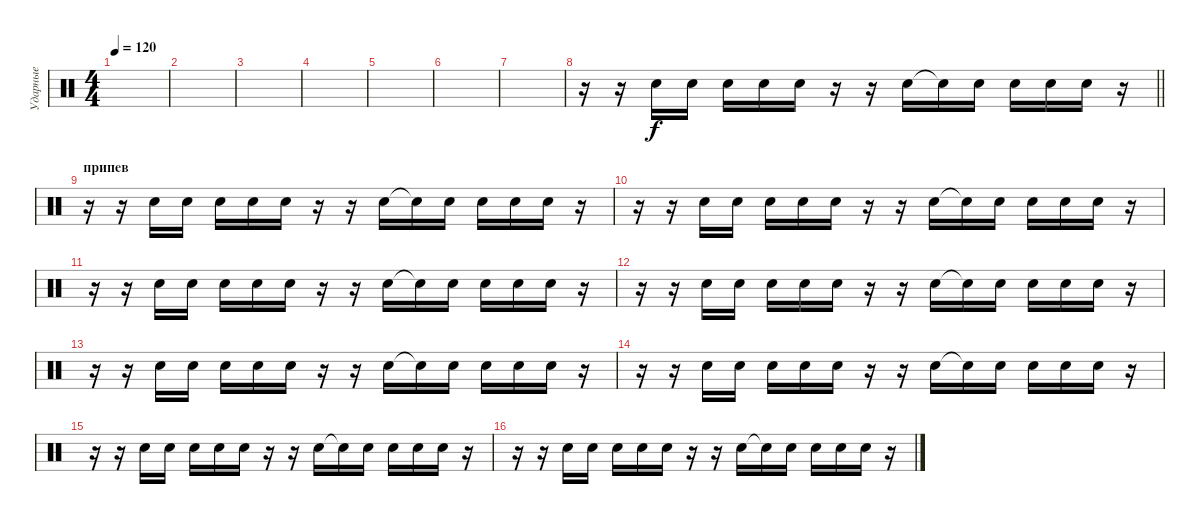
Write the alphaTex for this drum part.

\track ("Ударные" "Ударные") {instrument percussion}
\staff {score}
\articulation defaults
\ts (4 4)
\tempo 120
\clef neutral
\ks c
|
|
|
|
|
|
|
\barLineRight lightlight
r.16 r.16 "Hand Clap (hit)".16 "Hand Clap (hit)".16 "Hand Clap (hit)".16 "Hand Clap (hit)".16 "Hand Clap (hit)".16 r.16 r.16 "Hand Clap (hit)".16 "Hand Clap (hit)"{t}.16 "Hand Clap (hit)".16 "Hand Clap (hit)".16 "Hand Clap (hit)".16 "Hand Clap (hit)".16 r.16 |
\section ("" "припев")
r.16 r.16 "Hand Clap (hit)".16 "Hand Clap (hit)".16 "Hand Clap (hit)".16 "Hand Clap (hit)".16 "Hand Clap (hit)".16 r.16 r.16 "Hand Clap (hit)".16 "Hand Clap (hit)"{t}.16 "Hand Clap (hit)".16 "Hand Clap (hit)".16 "Hand Clap (hit)".16 "Hand Clap (hit)".16 r.16 |
r.16 r.16 "Hand Clap (hit)".16 "Hand Clap (hit)".16 "Hand Clap (hit)".16 "Hand Clap (hit)".16 "Hand Clap (hit)".16 r.16 r.16 "Hand Clap (hit)".16 "Hand Clap (hit)"{t}.16 "Hand Clap (hit)".16 "Hand Clap (hit)".16 "Hand Clap (hit)".16 "Hand Clap (hit)".16 r.16 |
r.16 r.16 "Hand Clap (hit)".16 "Hand Clap (hit)".16 "Hand Clap (hit)".16 "Hand Clap (hit)".16 "Hand Clap (hit)".16 r.16 r.16 "Hand Clap (hit)".16 "Hand Clap (hit)"{t}.16 "Hand Clap (hit)".16 "Hand Clap (hit)".16 "Hand Clap (hit)".16 "Hand Clap (hit)".16 r.16 |
r.16 r.16 "Hand Clap (hit)".16 "Hand Clap (hit)".16 "Hand Clap (hit)".16 "Hand Clap (hit)".16 "Hand Clap (hit)".16 r.16 r.16 "Hand Clap (hit)".16 "Hand Clap (hit)"{t}.16 "Hand Clap (hit)".16 "Hand Clap (hit)".16 "Hand Clap (hit)".16 "Hand Clap (hit)".16 r.16 |
r.16 r.16 "Hand Clap (hit)".16 "Hand Clap (hit)".16 "Hand Clap (hit)".16 "Hand Clap (hit)".16 "Hand Clap (hit)".16 r.16 r.16 "Hand Clap (hit)".16 "Hand Clap (hit)"{t}.16 "Hand Clap (hit)".16 "Hand Clap (hit)".16 "Hand Clap (hit)".16 "Hand Clap (hit)".16 r.16 |
r.16 r.16 "Hand Clap (hit)".16 "Hand Clap (hit)".16 "Hand Clap (hit)".16 "Hand Clap (hit)".16 "Hand Clap (hit)".16 r.16 r.16 "Hand Clap (hit)".16 "Hand Clap (hit)"{t}.16 "Hand Clap (hit)".16 "Hand Clap (hit)".16 "Hand Clap (hit)".16 "Hand Clap (hit)".16 r.16 |
r.16 r.16 "Hand Clap (hit)".16 "Hand Clap (hit)".16 "Hand Clap (hit)".16 "Hand Clap (hit)".16 "Hand Clap (hit)".16 r.16 r.16 "Hand Clap (hit)".16 "Hand Clap (hit)"{t}.16 "Hand Clap (hit)".16 "Hand Clap (hit)".16 "Hand Clap (hit)".16 "Hand Clap (hit)".16 r.16 |
r.16 r.16 "Hand Clap (hit)".16 "Hand Clap (hit)".16 "Hand Clap (hit)".16 "Hand Clap (hit)".16 "Hand Clap (hit)".16 r.16 r.16 "Hand Clap (hit)".16 "Hand Clap (hit)"{t}.16 "Hand Clap (hit)".16 "Hand Clap (hit)".16 "Hand Clap (hit)".16 "Hand Clap (hit)".16 r.16
